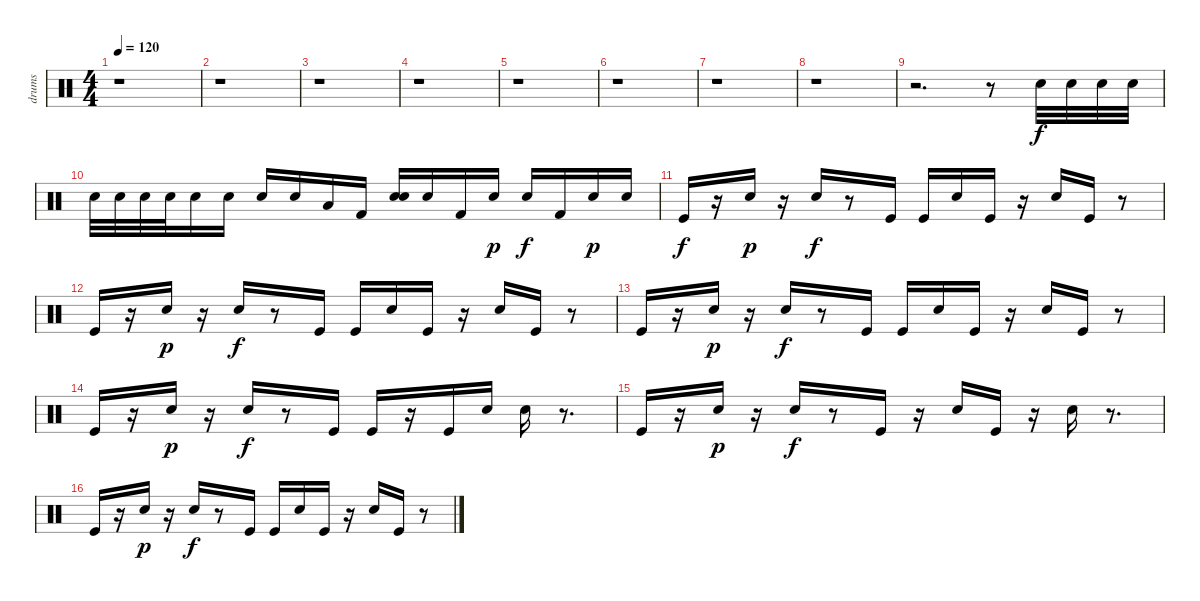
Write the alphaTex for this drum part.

\track ("drums" "drums") {instrument percussion}
\staff {score}
\articulation defaults
\ts (4 4)
\tempo 120
\clef neutral
\ks c
r.1{dy f} |
r.1 |
r.1 |
r.1 |
r.1 |
r.1 |
r.1 |
r.1 |
r.2{d} r.8 "Electric Snare (hit)".32 "Electric Snare (hit)".32 "Electric Snare (hit)".32 "Electric Snare (hit)".32 |
"Electric Snare (hit)".32 "Electric Snare (hit)".32 "Electric Snare (hit)".32 "Electric Snare (hit)".32 "Electric Snare (hit)".16 "Electric Snare (hit)".16 "Electric Snare (hit)".16 "Electric Snare (hit)".16 "Low Tom (hit)".16 "Kick (hit) 2".16 ("Electric Snare (hit)" "Electric Snare (hit)").16 "Electric Snare (hit)".16 "Kick (hit) 2".16 "Electric Snare (hit)".16{dy p} "Electric Snare (hit)".16{dy f} "Kick (hit) 2".16 "Electric Snare (hit)".16{dy p} "Electric Snare (hit)".16 |
"Kick (hit)".16{dy f} r.16 "Electric Snare (hit)".16{dy p} r.16 "Electric Snare (hit)".16{dy f} r.8 "Kick (hit)".16 "Kick (hit)".16 "Electric Snare (hit)".16 "Kick (hit)".16 r.16 "Electric Snare (hit)".16 "Kick (hit)".16 r.8 |
"Kick (hit)".16 r.16 "Electric Snare (hit)".16{dy p} r.16 "Electric Snare (hit)".16{dy f} r.8 "Kick (hit)".16 "Kick (hit)".16 "Electric Snare (hit)".16 "Kick (hit)".16 r.16 "Electric Snare (hit)".16 "Kick (hit)".16 r.8 |
"Kick (hit)".16 r.16 "Electric Snare (hit)".16{dy p} r.16 "Electric Snare (hit)".16{dy f} r.8 "Kick (hit)".16 "Kick (hit)".16 "Electric Snare (hit)".16 "Kick (hit)".16 r.16 "Electric Snare (hit)".16 "Kick (hit)".16 r.8 |
"Kick (hit)".16 r.16 "Electric Snare (hit)".16{dy p} r.16 "Electric Snare (hit)".16{dy f} r.8 "Kick (hit)".16 "Kick (hit)".16 r.16 "Kick (hit)".16 "Electric Snare (hit)".16 "Electric Snare (hit)".16 r.8{d} |
"Kick (hit)".16 r.16 "Electric Snare (hit)".16{dy p} r.16 "Electric Snare (hit)".16{dy f} r.8 "Kick (hit)".16 r.16 "Electric Snare (hit)".16 "Kick (hit)".16 r.16 "Electric Snare (hit)".16 r.8{d} |
"Kick (hit)".16 r.16 "Electric Snare (hit)".16{dy p} r.16 "Electric Snare (hit)".16{dy f} r.8 "Kick (hit)".16 "Kick (hit)".16 "Electric Snare (hit)".16 "Kick (hit)".16 r.16 "Electric Snare (hit)".16 "Kick (hit)".16 r.8
